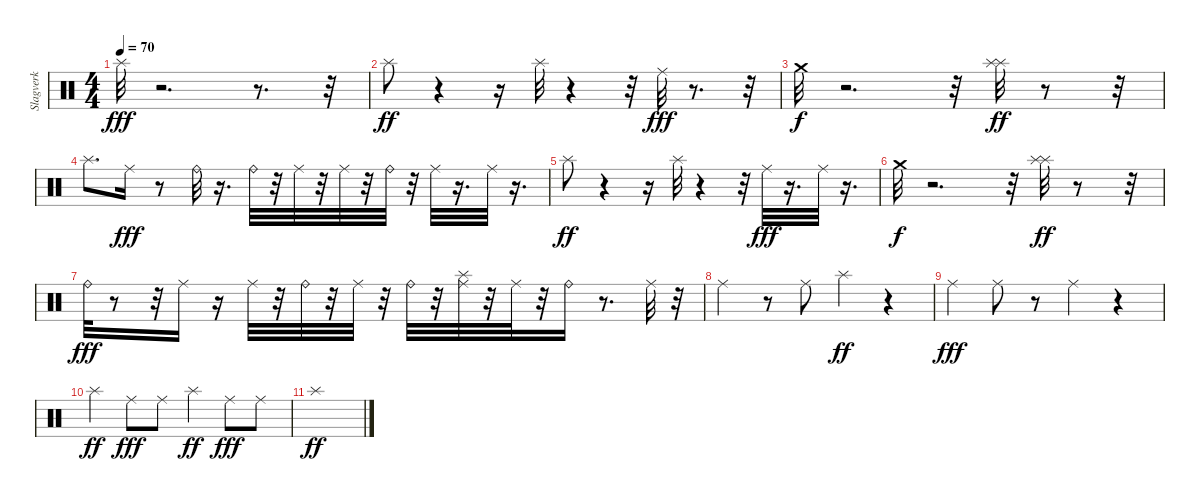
\track ("Slagverk" "Slagverk") {instrument percussion}
\staff {score}
\articulation defaults
\ts (4 4)
\tempo 70
\clef neutral
\ks c "Splash (hit)".32{dy fff}
r.2{d} r.8{d} r.32 |
"Splash (hit)".8{dy ff} r.4 r.16 "Splash (hit)".32 r.4 r.32 "Ride (middle)".32{dy fff} r.8{d} r.32 |
"Crash medium (hit)".32{dy f} r.2{d} r.32 ("Splash (hit)" "Splash (hit)").32{dy ff} r.8 r.32 |
"Splash (hit)".8{d} "Ride (middle)".16{dy fff} r.8 "Ride (bell)".32 r.16{d} "Ride (bell)".32 r.32 "Ride (middle)".32 r.32 "Ride (middle)".32 r.32 "Ride (bell)".32 r.32 "Ride (middle)".32 r.16{d} "Ride (middle)".32 r.16{d} |
"Splash (hit)".8{dy ff} r.4 r.16 "Splash (hit)".32 r.4 r.32 "Ride (middle)".32{dy fff} r.16{d} "Ride (middle)".32 r.16{d} |
"Crash medium (hit)".32{dy f} r.2{d} r.32 ("Splash (hit)" "Splash (hit)").32{dy ff} r.8 r.32 |
"Ride (bell)".32{dy fff} r.8 r.32 "Ride (middle)".16 r.16 "Ride (middle)".32 r.32 "Ride (bell)".32 r.32 "Ride (middle)".32 r.32 "Ride (bell)".32 r.32 ("Ride (middle)" "Splash (hit)").32 r.32 "Ride (middle)".32 r.32 "Ride (bell)".16 r.8{d} "Ride (middle)".32 r.32 |
"Ride (middle)".4 r.8 "Ride (middle)".8 "Splash (hit)".4{dy ff} r.4 |
"Ride (middle)".4{dy fff} "Ride (middle)".8 r.8 "Ride (middle)".4 r.4 |
"Splash (hit)".4{dy ff} "Ride (middle)".8{dy fff} "Ride (middle)".8 "Splash (hit)".4{dy ff} "Ride (middle)".8{dy fff} "Ride (middle)".8 |
"Splash (hit)".1{dy ff}
